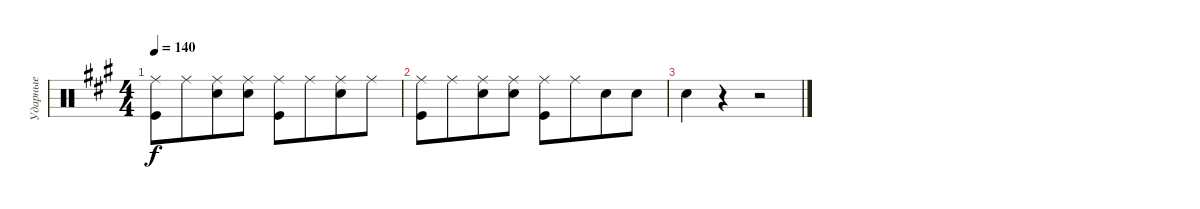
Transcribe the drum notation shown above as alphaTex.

\track ("Ударные" "Ударные") {instrument percussion}
\staff {score}
\articulation defaults
\ts (4 4)
\tempo 140
\clef neutral
\ks a
("Kick (hit)" "Ride (middle)").8{dy f} "Ride (middle)".8{beam merge} ("Snare (hit) 2" "Ride (middle)").8 ("Ride (middle)" "Snare (hit) 2").8 ("Kick (hit)" "Ride (middle)").8 "Ride (middle)".8{beam merge} ("Snare (hit) 2" "Ride (middle)").8 "Ride (middle)".8 |
("Kick (hit)" "Ride (middle)").8 "Ride (middle)".8{beam merge} ("Snare (hit) 2" "Ride (middle)").8 ("Ride (middle)" "Snare (hit) 2").8 ("Kick (hit)" "Ride (middle)").8 "Ride (middle)".8{beam merge} "Snare (hit) 2".8 "Snare (hit) 2".8 |
"Snare (hit) 2".4 r.4 r.2
